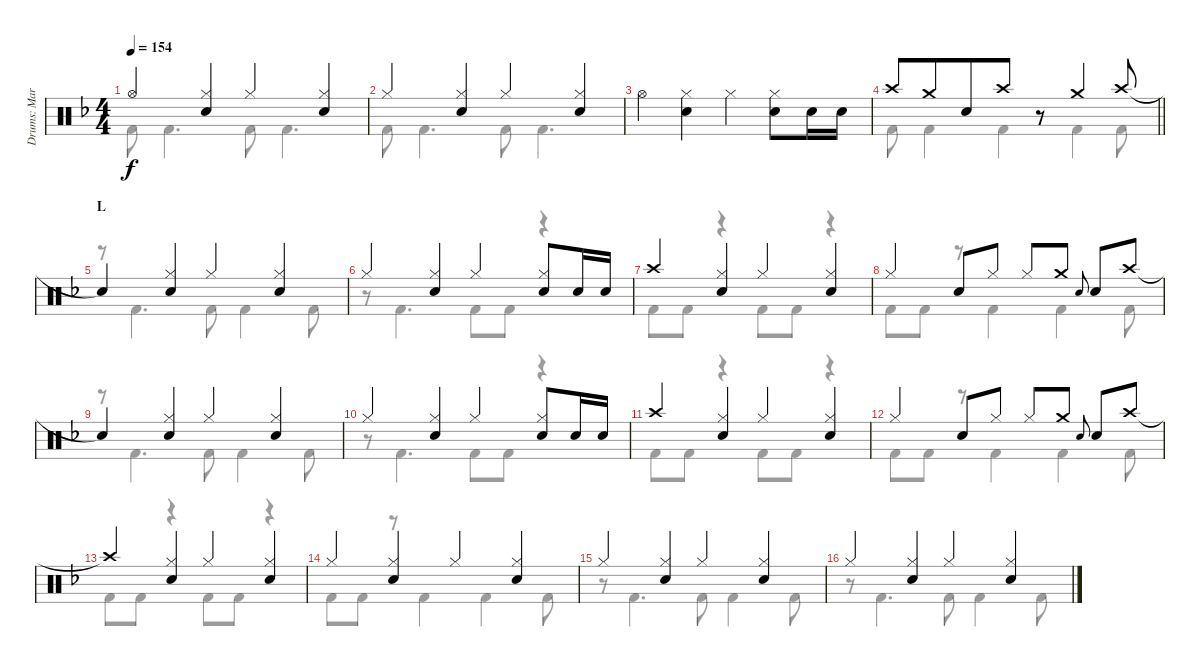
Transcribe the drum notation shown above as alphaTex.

\track ("Drums: Mark" "Drums: Mar") {instrument percussion}
\staff {score}
\articulation defaults
\voice
\ts (4 4)
\tempo 154
\clef neutral
\ks f "Hi-Hat (open)".4{dy f}
("Hi-Hat (closed)" "Snare (hit) 2").4 "Hi-Hat (closed)".4 ("Hi-Hat (closed)" "Snare (hit) 2").4 |
"Hi-Hat (closed)".4 ("Hi-Hat (closed)" "Snare (hit) 2").4 "Hi-Hat (closed)".4 ("Hi-Hat (closed)" "Snare (hit) 2").4 |
"Hi-Hat (open)".4 ("Hi-Hat (closed)" "Snare (hit) 2").4 "Hi-Hat (closed)".4 ("Hi-Hat (closed)" "Snare (hit) 2").8 "Snare (hit) 2".16 "Snare (hit) 2".16 |
\barLineRight lightlight "Crash high (hit)".8 "Crash medium (hit)".8{beam merge} "Snare (hit) 2".8 "Crash high (hit)".8
r.8 "Crash medium (hit)".4 "Crash high (hit)".8 |
\section ("" "L")
"Snare (hit)"{t}.4 ("Hi-Hat (closed)" "Snare (hit) 2").4 "Hi-Hat (closed)".4 ("Hi-Hat (closed)" "Snare (hit) 2").4 |
"Hi-Hat (closed)".4 ("Hi-Hat (closed)" "Snare (hit) 2").4 "Hi-Hat (closed)".4 ("Hi-Hat (closed)" "Snare (hit) 2").8 "Snare (hit) 2".16 "Snare (hit) 2".16 |
"Crash high (hit)".4 ("Hi-Hat (closed)" "Snare (hit) 2").4 "Hi-Hat (closed)".4 ("Hi-Hat (closed)" "Snare (hit) 2").4 |
"Hi-Hat (closed)".4 "Snare (hit) 2".8{beam merge} "Hi-Hat (closed)".8 "Hi-Hat (closed)".8 "Crash medium (hit)".8 "Electric Snare (hit)".8{gr onbeat beam merge} "Snare (hit) 2".8 "Crash high (hit)".8 |
"Snare (hit)"{t}.4 ("Hi-Hat (closed)" "Snare (hit) 2").4 "Hi-Hat (closed)".4 ("Hi-Hat (closed)" "Snare (hit) 2").4 |
"Hi-Hat (closed)".4 ("Hi-Hat (closed)" "Snare (hit) 2").4 "Hi-Hat (closed)".4 ("Hi-Hat (closed)" "Snare (hit) 2").8 "Snare (hit) 2".16 "Snare (hit) 2".16 |
"Crash high (hit)".4 ("Hi-Hat (closed)" "Snare (hit) 2").4 "Hi-Hat (closed)".4 ("Hi-Hat (closed)" "Snare (hit) 2").4 |
"Hi-Hat (closed)".4 "Snare (hit) 2".8{beam merge} "Hi-Hat (closed)".8 "Hi-Hat (closed)".8 "Crash medium (hit)".8 "Electric Snare (hit)".8{gr onbeat beam merge} "Snare (hit) 2".8 "Crash high (hit)".8 |
"Crash high (hit)"{t}.4 ("Hi-Hat (closed)" "Snare (hit) 2").4 "Hi-Hat (closed)".4 ("Hi-Hat (closed)" "Snare (hit) 2").4 |
"Hi-Hat (closed)".4 ("Hi-Hat (closed)" "Snare (hit) 2").4 "Hi-Hat (closed)".4 ("Hi-Hat (closed)" "Snare (hit) 2").4 |
"Hi-Hat (closed)".4 ("Hi-Hat (closed)" "Snare (hit) 2").4 "Hi-Hat (closed)".4 ("Hi-Hat (closed)" "Snare (hit) 2").4 |
"Hi-Hat (closed)".4 ("Hi-Hat (closed)" "Snare (hit) 2").4 "Hi-Hat (closed)".4 ("Hi-Hat (closed)" "Snare (hit) 2").4
\voice
\clef neutral
\ottava regular
\simile none
\ks f "Kick (hit) 2".8{dy f} "Kick (hit) 2".4{d} "Kick (hit) 2".8 "Kick (hit) 2".4{d}
|
"Kick (hit) 2".8 "Kick (hit) 2".4{d} "Kick (hit) 2".8 "Kick (hit) 2".4{d} |
|
\barLineRight lightlight "Kick (hit) 2".8 "Kick (hit) 2".4 "Kick (hit) 2".4 "Kick (hit) 2".4 "Kick (hit) 2".8
|
r.8 "Kick (hit) 2".4{d} "Kick (hit) 2".8 "Kick (hit) 2".4 "Kick (hit) 2".8 |
r.8 "Kick (hit) 2".4{d} "Kick (hit) 2".8 "Kick (hit) 2".8 r.4 |
"Kick (hit) 2".8 "Kick (hit) 2".8 r.4 "Kick (hit) 2".8 "Kick (hit) 2".8 r.4 |
"Kick (hit) 2".8 "Kick (hit) 2".8 r.8 "Kick (hit) 2".4 "Kick (hit) 2".4 "Kick (hit) 2".8 |
r.8 "Kick (hit) 2".4{d} "Kick (hit) 2".8 "Kick (hit) 2".4 "Kick (hit) 2".8 |
r.8 "Kick (hit) 2".4{d} "Kick (hit) 2".8 "Kick (hit) 2".8 r.4 |
"Kick (hit) 2".8 "Kick (hit) 2".8 r.4 "Kick (hit) 2".8 "Kick (hit) 2".8 r.4 |
"Kick (hit) 2".8 "Kick (hit) 2".8 r.8 "Kick (hit) 2".4 "Kick (hit) 2".4 "Kick (hit) 2".8 |
"Kick (hit) 2".8 "Kick (hit) 2".8 r.4 "Kick (hit) 2".8 "Kick (hit) 2".8 r.4 |
"Kick (hit) 2".8 "Kick (hit) 2".8 r.8 "Kick (hit) 2".4 "Kick (hit) 2".4 "Kick (hit) 2".8 |
r.8 "Kick (hit) 2".4{d} "Kick (hit) 2".8 "Kick (hit) 2".4 "Kick (hit) 2".8 |
r.8 "Kick (hit) 2".4{d} "Kick (hit) 2".8 "Kick (hit) 2".4 "Kick (hit) 2".8
